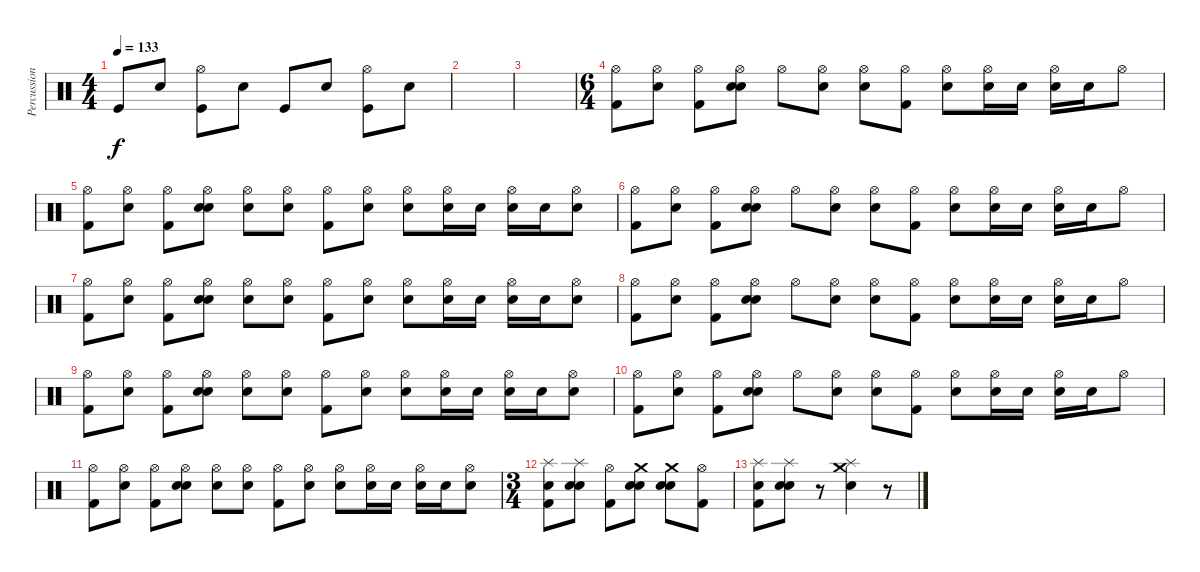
\track ("Percussion" "Percussion") {instrument percussion}
\staff {score}
\articulation defaults
\ts (4 4)
\tempo 133
\clef neutral
\ks c "Kick (hit)".8{dy f} "Snare (hit) 2".8
("Hi-Hat (open)" "Kick (hit)").8 "Snare (hit)"{x}.8 "Kick (hit)".8 "Snare (hit) 2".8 ("Hi-Hat (open)" "Kick (hit)").8 "Snare (hit)"{x}.8 |
|
|
\ts (6 4)
("Hi-Hat (open)" "Kick (hit) 2").8 ("Hi-Hat (open)" "Snare (hit)"{x}).8 ("Hi-Hat (open)" "Kick (hit) 2").8 ("Hi-Hat (open)" "Snare (hit) 2" "Snare (hit)"{x}).8 "Hi-Hat (open)".8 ("Hi-Hat (open)" "Snare (hit) 2").8 ("Hi-Hat (open)" "Snare (hit) 2").8 ("Hi-Hat (open)" "Kick (hit) 2").8 ("Hi-Hat (open)" "Snare (hit) 2").8 ("Hi-Hat (open)" "Snare (hit) 2").16 "Snare (hit) 2".16 ("Hi-Hat (open)" "Snare (hit) 2").16 "Snare (hit) 2".16 "Hi-Hat (open)".8 |
("Hi-Hat (open)" "Kick (hit) 2").8 ("Hi-Hat (open)" "Snare (hit)"{x}).8 ("Hi-Hat (open)" "Kick (hit) 2").8 ("Hi-Hat (open)" "Snare (hit) 2" "Snare (hit)"{x}).8 ("Hi-Hat (open)" "Snare (hit)"{x}).8 ("Hi-Hat (open)" "Snare (hit) 2").8 ("Hi-Hat (open)" "Kick (hit) 2").8 ("Hi-Hat (open)" "Snare (hit) 2").8 ("Hi-Hat (open)" "Snare (hit) 2").8 ("Hi-Hat (open)" "Snare (hit) 2").16 "Snare (hit) 2".16 ("Hi-Hat (open)" "Snare (hit) 2").16 "Snare (hit) 2".16 ("Hi-Hat (open)" "Snare (hit) 2").8 |
("Hi-Hat (open)" "Kick (hit) 2").8 ("Hi-Hat (open)" "Snare (hit)"{x}).8 ("Hi-Hat (open)" "Kick (hit) 2").8 ("Hi-Hat (open)" "Snare (hit) 2" "Snare (hit)"{x}).8 "Hi-Hat (open)".8 ("Hi-Hat (open)" "Snare (hit) 2").8 ("Hi-Hat (open)" "Snare (hit) 2").8 ("Hi-Hat (open)" "Kick (hit) 2").8 ("Hi-Hat (open)" "Snare (hit) 2").8 ("Hi-Hat (open)" "Snare (hit) 2").16 "Snare (hit) 2".16 ("Hi-Hat (open)" "Snare (hit) 2").16 "Snare (hit) 2".16 "Hi-Hat (open)".8 |
("Hi-Hat (open)" "Kick (hit) 2").8 ("Hi-Hat (open)" "Snare (hit)"{x}).8 ("Hi-Hat (open)" "Kick (hit) 2").8 ("Hi-Hat (open)" "Snare (hit) 2" "Snare (hit)"{x}).8 ("Hi-Hat (open)" "Snare (hit)"{x}).8 ("Hi-Hat (open)" "Snare (hit) 2").8 ("Hi-Hat (open)" "Kick (hit) 2").8 ("Hi-Hat (open)" "Snare (hit) 2").8 ("Hi-Hat (open)" "Snare (hit) 2").8 ("Hi-Hat (open)" "Snare (hit) 2").16 "Snare (hit) 2".16 ("Hi-Hat (open)" "Snare (hit) 2").16 "Snare (hit) 2".16 ("Hi-Hat (open)" "Snare (hit) 2").8 |
("Hi-Hat (open)" "Kick (hit) 2").8 ("Hi-Hat (open)" "Snare (hit)"{x}).8 ("Hi-Hat (open)" "Kick (hit) 2").8 ("Hi-Hat (open)" "Snare (hit) 2" "Snare (hit)"{x}).8 "Hi-Hat (open)".8 ("Hi-Hat (open)" "Snare (hit) 2").8 ("Hi-Hat (open)" "Snare (hit) 2").8 ("Hi-Hat (open)" "Kick (hit) 2").8 ("Hi-Hat (open)" "Snare (hit) 2").8 ("Hi-Hat (open)" "Snare (hit) 2").16 "Snare (hit) 2".16 ("Hi-Hat (open)" "Snare (hit) 2").16 "Snare (hit) 2".16 "Hi-Hat (open)".8 |
("Hi-Hat (open)" "Kick (hit) 2").8 ("Hi-Hat (open)" "Snare (hit)"{x}).8 ("Hi-Hat (open)" "Kick (hit) 2").8 ("Hi-Hat (open)" "Snare (hit) 2" "Snare (hit)"{x}).8 ("Hi-Hat (open)" "Snare (hit)"{x}).8 ("Hi-Hat (open)" "Snare (hit) 2").8 ("Hi-Hat (open)" "Kick (hit) 2").8 ("Hi-Hat (open)" "Snare (hit) 2").8 ("Hi-Hat (open)" "Snare (hit) 2").8 ("Hi-Hat (open)" "Snare (hit) 2").16 "Snare (hit) 2".16 ("Hi-Hat (open)" "Snare (hit) 2").16 "Snare (hit) 2".16 ("Hi-Hat (open)" "Snare (hit) 2").8 |
("Hi-Hat (open)" "Kick (hit) 2").8 ("Hi-Hat (open)" "Snare (hit)"{x}).8 ("Hi-Hat (open)" "Kick (hit) 2").8 ("Hi-Hat (open)" "Snare (hit) 2" "Snare (hit)"{x}).8 "Hi-Hat (open)".8 ("Hi-Hat (open)" "Snare (hit) 2").8 ("Hi-Hat (open)" "Snare (hit) 2").8 ("Hi-Hat (open)" "Kick (hit) 2").8 ("Hi-Hat (open)" "Snare (hit) 2").8 ("Hi-Hat (open)" "Snare (hit) 2").16 "Snare (hit) 2".16 ("Hi-Hat (open)" "Snare (hit) 2").16 "Snare (hit) 2".16 "Hi-Hat (open)".8 |
("Hi-Hat (open)" "Kick (hit) 2").8 ("Hi-Hat (open)" "Snare (hit)"{x}).8 ("Hi-Hat (open)" "Kick (hit) 2").8 ("Hi-Hat (open)" "Snare (hit) 2" "Snare (hit)"{x}).8 ("Hi-Hat (open)" "Snare (hit)"{x}).8 ("Hi-Hat (open)" "Snare (hit) 2").8 ("Hi-Hat (open)" "Kick (hit) 2").8 ("Hi-Hat (open)" "Snare (hit) 2").8 ("Hi-Hat (open)" "Snare (hit) 2").8 ("Hi-Hat (open)" "Snare (hit) 2").16 "Snare (hit) 2".16 ("Hi-Hat (open)" "Snare (hit) 2").16 "Snare (hit) 2".16 ("Hi-Hat (open)" "Snare (hit) 2").8 |
\ts (3 4)
("Splash (hit)" "Snare (hit) 2" "Kick (hit) 2").8 ("Splash (hit)" "Snare (hit) 2" "Snare (hit)"{x}).8 ("Hi-Hat (open)" "Kick (hit) 2").8 ("Crash medium (hit)" "Snare (hit) 2" "Snare (hit)"{x}).8 ("Crash medium (hit)" "Snare (hit) 2" "Snare (hit)"{x}).8 ("Hi-Hat (open)" "Kick (hit) 2").8 |
("Splash (hit)" "Snare (hit) 2" "Kick (hit) 2").8 ("Splash (hit)" "Snare (hit) 2" "Snare (hit)"{x}).8 r.8 ("Crash medium (hit)" "Splash (hit)" "Snare (hit)"{x}).4 r.8
